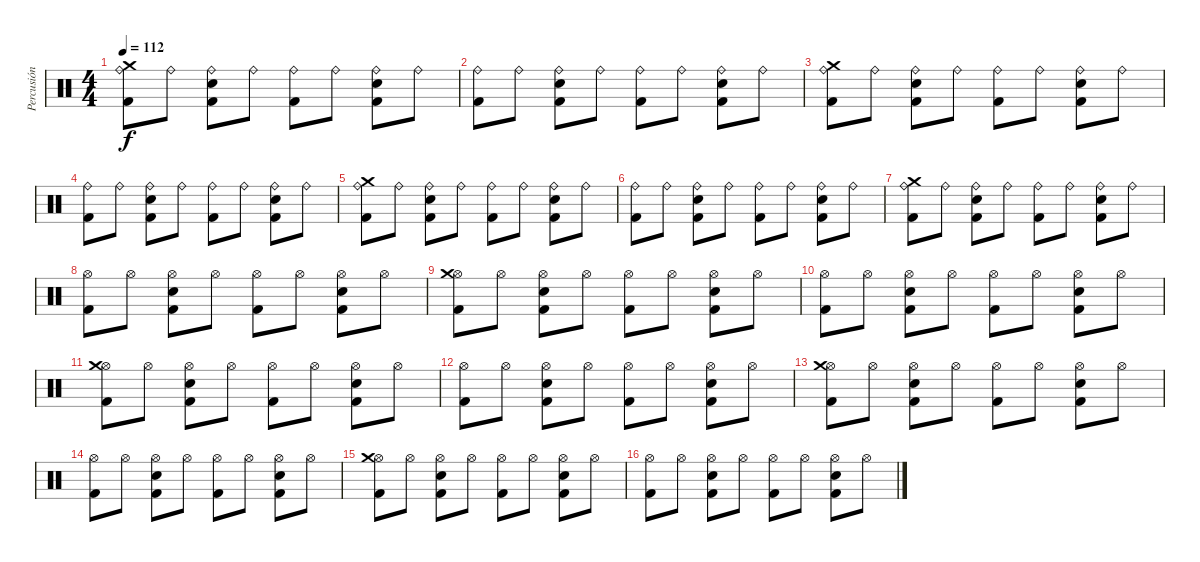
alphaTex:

\track ("Percusión" "Percusión") {instrument percussion}
\staff {score}
\articulation defaults
\ts (4 4)
\tempo 112
\clef neutral
\ks c
("Kick (hit) 2" "Ride (bell)" "Crash medium (hit)").8{dy f} "Ride (bell)".8 ("Kick (hit) 2" "Ride (bell)" "Electric Snare (hit)").8 "Ride (bell)".8 ("Kick (hit) 2" "Ride (bell)").8 "Ride (bell)".8 ("Kick (hit) 2" "Ride (bell)" "Electric Snare (hit)").8 "Ride (bell)".8 |
("Kick (hit) 2" "Ride (bell)").8 "Ride (bell)".8 ("Kick (hit) 2" "Ride (bell)" "Electric Snare (hit)").8 "Ride (bell)".8 ("Kick (hit) 2" "Ride (bell)").8 "Ride (bell)".8 ("Kick (hit) 2" "Ride (bell)" "Electric Snare (hit)").8 "Ride (bell)".8 |
("Kick (hit) 2" "Ride (bell)" "Crash medium (hit)").8 "Ride (bell)".8 ("Kick (hit) 2" "Ride (bell)" "Electric Snare (hit)").8 "Ride (bell)".8 ("Kick (hit) 2" "Ride (bell)").8 "Ride (bell)".8 ("Kick (hit) 2" "Ride (bell)" "Electric Snare (hit)").8 "Ride (bell)".8 |
("Kick (hit) 2" "Ride (bell)").8 "Ride (bell)".8 ("Kick (hit) 2" "Ride (bell)" "Electric Snare (hit)").8 "Ride (bell)".8 ("Kick (hit) 2" "Ride (bell)").8 "Ride (bell)".8 ("Kick (hit) 2" "Ride (bell)" "Electric Snare (hit)").8 "Ride (bell)".8 |
("Kick (hit) 2" "Ride (bell)" "Crash medium (hit)").8 "Ride (bell)".8 ("Kick (hit) 2" "Ride (bell)" "Electric Snare (hit)").8 "Ride (bell)".8 ("Kick (hit) 2" "Ride (bell)").8 "Ride (bell)".8 ("Kick (hit) 2" "Ride (bell)" "Electric Snare (hit)").8 "Ride (bell)".8 |
("Kick (hit) 2" "Ride (bell)").8 "Ride (bell)".8 ("Kick (hit) 2" "Ride (bell)" "Electric Snare (hit)").8 "Ride (bell)".8 ("Kick (hit) 2" "Ride (bell)").8 "Ride (bell)".8 ("Kick (hit) 2" "Ride (bell)" "Electric Snare (hit)").8 "Ride (bell)".8 |
("Kick (hit) 2" "Ride (bell)" "Crash medium (hit)").8 "Ride (bell)".8 ("Kick (hit) 2" "Ride (bell)" "Electric Snare (hit)").8 "Ride (bell)".8 ("Kick (hit) 2" "Ride (bell)").8 "Ride (bell)".8 ("Kick (hit) 2" "Ride (bell)" "Electric Snare (hit)").8 "Ride (bell)".8 |
("Kick (hit) 2" "Hi-Hat (open)").8 "Hi-Hat (open)".8 ("Kick (hit) 2" "Hi-Hat (open)" "Electric Snare (hit)").8 "Hi-Hat (open)".8 ("Kick (hit) 2" "Hi-Hat (open)").8 "Hi-Hat (open)".8 ("Kick (hit) 2" "Hi-Hat (open)" "Electric Snare (hit)").8 "Hi-Hat (open)".8 |
("Kick (hit) 2" "Hi-Hat (open)" "Crash medium (hit)").8 "Hi-Hat (open)".8 ("Kick (hit) 2" "Hi-Hat (open)" "Electric Snare (hit)").8 "Hi-Hat (open)".8 ("Kick (hit) 2" "Hi-Hat (open)").8 "Hi-Hat (open)".8 ("Kick (hit) 2" "Hi-Hat (open)" "Electric Snare (hit)").8 "Hi-Hat (open)".8 |
("Kick (hit) 2" "Hi-Hat (open)").8 "Hi-Hat (open)".8 ("Kick (hit) 2" "Hi-Hat (open)" "Electric Snare (hit)").8 "Hi-Hat (open)".8 ("Kick (hit) 2" "Hi-Hat (open)").8 "Hi-Hat (open)".8 ("Kick (hit) 2" "Hi-Hat (open)" "Electric Snare (hit)").8 "Hi-Hat (open)".8 |
("Kick (hit) 2" "Hi-Hat (open)" "Crash medium (hit)").8 "Hi-Hat (open)".8 ("Kick (hit) 2" "Hi-Hat (open)" "Electric Snare (hit)").8 "Hi-Hat (open)".8 ("Kick (hit) 2" "Hi-Hat (open)").8 "Hi-Hat (open)".8 ("Kick (hit) 2" "Hi-Hat (open)" "Electric Snare (hit)").8 "Hi-Hat (open)".8 |
("Kick (hit) 2" "Hi-Hat (open)").8 "Hi-Hat (open)".8 ("Kick (hit) 2" "Hi-Hat (open)" "Electric Snare (hit)").8 "Hi-Hat (open)".8 ("Kick (hit) 2" "Hi-Hat (open)").8 "Hi-Hat (open)".8 ("Kick (hit) 2" "Hi-Hat (open)" "Electric Snare (hit)").8 "Hi-Hat (open)".8 |
("Kick (hit) 2" "Hi-Hat (open)" "Crash medium (hit)").8 "Hi-Hat (open)".8 ("Kick (hit) 2" "Hi-Hat (open)" "Electric Snare (hit)").8 "Hi-Hat (open)".8 ("Kick (hit) 2" "Hi-Hat (open)").8 "Hi-Hat (open)".8 ("Kick (hit) 2" "Hi-Hat (open)" "Electric Snare (hit)").8 "Hi-Hat (open)".8 |
("Kick (hit) 2" "Hi-Hat (open)").8 "Hi-Hat (open)".8 ("Kick (hit) 2" "Hi-Hat (open)" "Electric Snare (hit)").8 "Hi-Hat (open)".8 ("Kick (hit) 2" "Hi-Hat (open)").8 "Hi-Hat (open)".8 ("Kick (hit) 2" "Hi-Hat (open)" "Electric Snare (hit)").8 "Hi-Hat (open)".8 |
("Kick (hit) 2" "Hi-Hat (open)" "Crash medium (hit)").8 "Hi-Hat (open)".8 ("Kick (hit) 2" "Hi-Hat (open)" "Electric Snare (hit)").8 "Hi-Hat (open)".8 ("Kick (hit) 2" "Hi-Hat (open)").8 "Hi-Hat (open)".8 ("Kick (hit) 2" "Hi-Hat (open)" "Electric Snare (hit)").8 "Hi-Hat (open)".8 |
("Kick (hit) 2" "Hi-Hat (open)").8 "Hi-Hat (open)".8 ("Kick (hit) 2" "Hi-Hat (open)" "Electric Snare (hit)").8 "Hi-Hat (open)".8 ("Kick (hit) 2" "Hi-Hat (open)").8 "Hi-Hat (open)".8 ("Kick (hit) 2" "Hi-Hat (open)" "Electric Snare (hit)").8 "Hi-Hat (open)".8
